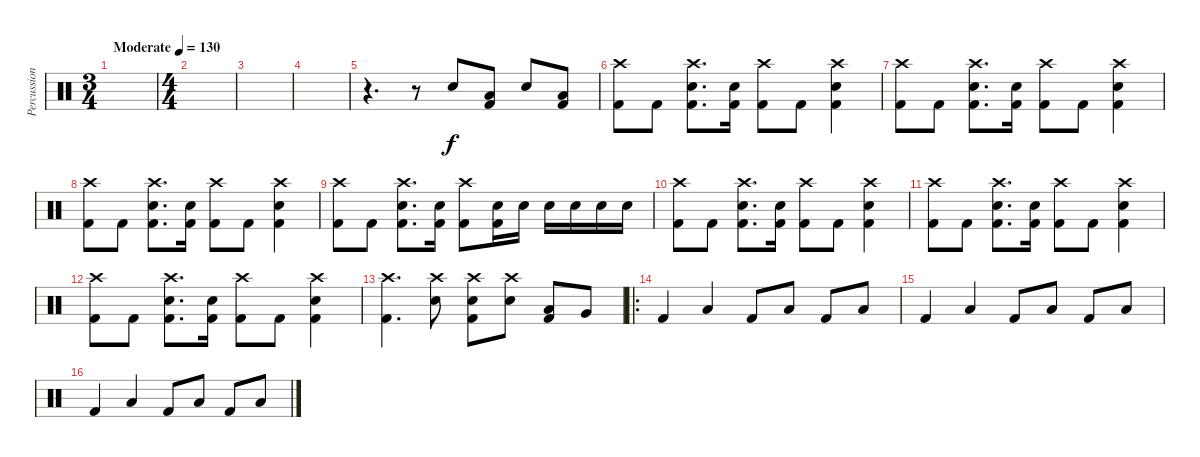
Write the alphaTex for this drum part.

\track ("Percussion" "Percussion") {instrument percussion}
\staff {score}
\articulation defaults
\ts (3 4)
\tempo (130 "Moderate")
\clef neutral
\ks c
|
\ts (4 4)
|
|
|
r.4{d} r.8 "Electric Snare (hit)".8 ("Low Floor Tom (hit)" "Kick (hit) 2").8 "Electric Snare (hit)".8 ("Low Floor Tom (hit)" "Kick (hit) 2").8 |
("Crash high (hit)" "Kick (hit) 2").8 "Kick (hit) 2".8 ("Crash high (hit)" "Electric Snare (hit)" "Kick (hit) 2").8{d} ("Electric Snare (hit)" "Kick (hit) 2").16 ("Crash high (hit)" "Kick (hit) 2").8 "Kick (hit) 2".8 ("Crash high (hit)" "Electric Snare (hit)" "Kick (hit) 2").4 |
("Crash high (hit)" "Kick (hit) 2").8 "Kick (hit) 2".8 ("Crash high (hit)" "Electric Snare (hit)" "Kick (hit) 2").8{d} ("Electric Snare (hit)" "Kick (hit) 2").16 ("Crash high (hit)" "Kick (hit) 2").8 "Kick (hit) 2".8 ("Crash high (hit)" "Electric Snare (hit)" "Kick (hit) 2").4 |
("Crash high (hit)" "Kick (hit) 2").8 "Kick (hit) 2".8 ("Crash high (hit)" "Electric Snare (hit)" "Kick (hit) 2").8{d} ("Electric Snare (hit)" "Kick (hit) 2").16 ("Crash high (hit)" "Kick (hit) 2").8 "Kick (hit) 2".8 ("Crash high (hit)" "Electric Snare (hit)" "Kick (hit) 2").4 |
("Crash high (hit)" "Kick (hit) 2").8 "Kick (hit) 2".8 ("Crash high (hit)" "Electric Snare (hit)" "Kick (hit) 2").8{d} ("Electric Snare (hit)" "Kick (hit) 2").16 ("Crash high (hit)" "Kick (hit) 2").8 ("Electric Snare (hit)" "Kick (hit) 2").16 "Electric Snare (hit)".16 "Electric Snare (hit)".16 "Electric Snare (hit)".16 "Electric Snare (hit)".16 "Electric Snare (hit)".16 |
("Crash high (hit)" "Kick (hit) 2").8 "Kick (hit) 2".8 ("Crash high (hit)" "Electric Snare (hit)" "Kick (hit) 2").8{d} ("Electric Snare (hit)" "Kick (hit) 2").16 ("Crash high (hit)" "Kick (hit) 2").8 "Kick (hit) 2".8 ("Crash high (hit)" "Electric Snare (hit)" "Kick (hit) 2").4 |
("Crash high (hit)" "Kick (hit) 2").8 "Kick (hit) 2".8 ("Crash high (hit)" "Electric Snare (hit)" "Kick (hit) 2").8{d} ("Electric Snare (hit)" "Kick (hit) 2").16 ("Crash high (hit)" "Kick (hit) 2").8 "Kick (hit) 2".8 ("Crash high (hit)" "Electric Snare (hit)" "Kick (hit) 2").4 |
("Crash high (hit)" "Kick (hit) 2").8 "Kick (hit) 2".8 ("Crash high (hit)" "Electric Snare (hit)" "Kick (hit) 2").8{d} ("Electric Snare (hit)" "Kick (hit) 2").16 ("Crash high (hit)" "Kick (hit) 2").8 "Kick (hit) 2".8 ("Crash high (hit)" "Electric Snare (hit)" "Kick (hit) 2").4 |
("Crash high (hit)" "Kick (hit) 2").4{d} ("Crash high (hit)" "Electric Snare (hit)").8 ("Crash high (hit)" "Electric Snare (hit)" "Kick (hit) 2").8 ("Crash high (hit)" "Electric Snare (hit)").8 ("Low Floor Tom (hit)" "Kick (hit) 2").8 "Very Low Tom (hit)".8 |
\ro "Kick (hit) 2".4 "Low Floor Tom (hit)".4 "Kick (hit) 2".8 "Low Floor Tom (hit)".8 "Kick (hit) 2".8 "Low Floor Tom (hit)".8
|
"Kick (hit) 2".4 "Low Floor Tom (hit)".4 "Kick (hit) 2".8 "Low Floor Tom (hit)".8 "Kick (hit) 2".8 "Low Floor Tom (hit)".8 |
"Kick (hit) 2".4 "Low Floor Tom (hit)".4 "Kick (hit) 2".8 "Low Floor Tom (hit)".8 "Kick (hit) 2".8 "Low Floor Tom (hit)".8
